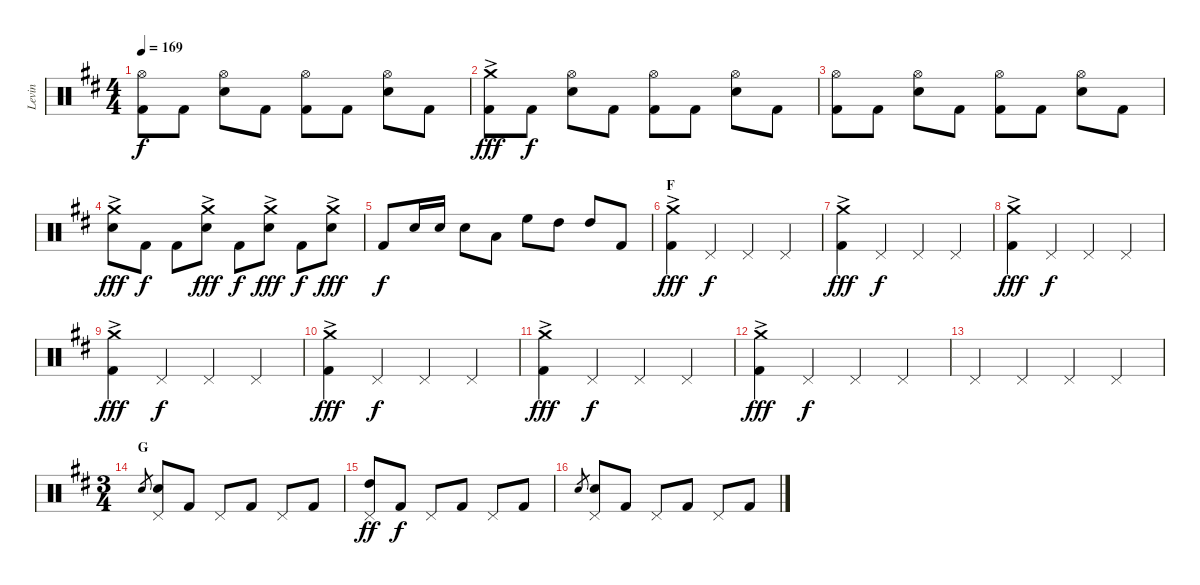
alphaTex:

\track ("Levin" "Levin") {instrument percussion}
\staff {score}
\articulation defaults
\ts (4 4)
\tempo 169
\clef neutral
\ks d
("Hi-Hat (open)" "Kick (hit) 2").8{dy f} "Kick (hit) 2".8 ("Hi-Hat (open)" "Electric Snare (hit)").8 "Kick (hit) 2".8 ("Hi-Hat (open)" "Kick (hit) 2").8 "Kick (hit) 2".8 ("Hi-Hat (open)" "Electric Snare (hit)").8 "Kick (hit) 2".8 |
("Crash medium (hit)"{ac} "Kick (hit) 2").8{dy fff} "Kick (hit) 2".8{dy f} ("Hi-Hat (open)" "Electric Snare (hit)").8 "Kick (hit) 2".8 ("Hi-Hat (open)" "Kick (hit) 2").8 "Kick (hit) 2".8 ("Hi-Hat (open)" "Electric Snare (hit)").8 "Kick (hit) 2".8 |
("Hi-Hat (open)" "Kick (hit) 2").8 "Kick (hit) 2".8 ("Hi-Hat (open)" "Electric Snare (hit)").8 "Kick (hit) 2".8 ("Hi-Hat (open)" "Kick (hit) 2").8 "Kick (hit) 2".8 ("Hi-Hat (open)" "Electric Snare (hit)").8 "Kick (hit) 2".8 |
("Crash medium (hit)"{ac} "Electric Snare (hit)").8{dy fff} "Kick (hit) 2".8{dy f} "Kick (hit) 2".8 ("Crash medium (hit)"{ac} "Electric Snare (hit)").8{dy fff} "Kick (hit) 2".8{dy f} ("Crash medium (hit)"{ac} "Electric Snare (hit)").8{dy fff} "Kick (hit) 2".8{dy f} ("Crash medium (hit)"{ac} "Electric Snare (hit)").8{dy fff} |
"Kick (hit) 2".8{dy f} "Electric Snare (hit)".16 "Electric Snare (hit)".16 "Electric Snare (hit)".8 "Low Tom (hit)".8 "High Floor Tom (hit)".8 "High Tom (hit)".8 "High Tom (hit)".8 "Kick (hit) 2".8 |
\section ("" "F")
("Crash medium (hit)"{ac} "Kick (hit) 2").4{dy fff} "Pedal Hi-Hat (hit)".4{dy f} "Pedal Hi-Hat (hit)".4 "Pedal Hi-Hat (hit)".4 |
("Crash medium (hit)"{ac} "Kick (hit) 2").4{dy fff} "Pedal Hi-Hat (hit)".4{dy f} "Pedal Hi-Hat (hit)".4 "Pedal Hi-Hat (hit)".4 |
("Crash medium (hit)"{ac} "Kick (hit) 2").4{dy fff} "Pedal Hi-Hat (hit)".4{dy f} "Pedal Hi-Hat (hit)".4 "Pedal Hi-Hat (hit)".4 |
("Crash medium (hit)"{ac} "Kick (hit) 2").4{dy fff} "Pedal Hi-Hat (hit)".4{dy f} "Pedal Hi-Hat (hit)".4 "Pedal Hi-Hat (hit)".4 |
("Crash medium (hit)"{ac} "Kick (hit) 2").4{dy fff} "Pedal Hi-Hat (hit)".4{dy f} "Pedal Hi-Hat (hit)".4 "Pedal Hi-Hat (hit)".4 |
("Crash medium (hit)"{ac} "Kick (hit) 2").4{dy fff} "Pedal Hi-Hat (hit)".4{dy f} "Pedal Hi-Hat (hit)".4 "Pedal Hi-Hat (hit)".4 |
("Crash medium (hit)"{ac} "Kick (hit) 2").4{dy fff} "Pedal Hi-Hat (hit)".4{dy f} "Pedal Hi-Hat (hit)".4 "Pedal Hi-Hat (hit)".4 |
"Pedal Hi-Hat (hit)".4 "Pedal Hi-Hat (hit)".4 "Pedal Hi-Hat (hit)".4 "Pedal Hi-Hat (hit)".4 |
\ts (3 4)
\section ("" "G")
"Electric Snare (hit)".8{gr} ("Electric Snare (hit)" "Pedal Hi-Hat (hit)").8 "Kick (hit) 2".8 "Pedal Hi-Hat (hit)".8 "Kick (hit) 2".8 "Pedal Hi-Hat (hit)".8 "Kick (hit) 2".8 |
("High Tom (hit)" "Pedal Hi-Hat (hit)").8{dy ff} "Kick (hit) 2".8{dy f} "Pedal Hi-Hat (hit)".8 "Kick (hit) 2".8 "Pedal Hi-Hat (hit)".8 "Kick (hit) 2".8 |
"Electric Snare (hit)".8{gr} ("Electric Snare (hit)" "Pedal Hi-Hat (hit)").8 "Kick (hit) 2".8 "Pedal Hi-Hat (hit)".8 "Kick (hit) 2".8 "Pedal Hi-Hat (hit)".8 "Kick (hit) 2".8
